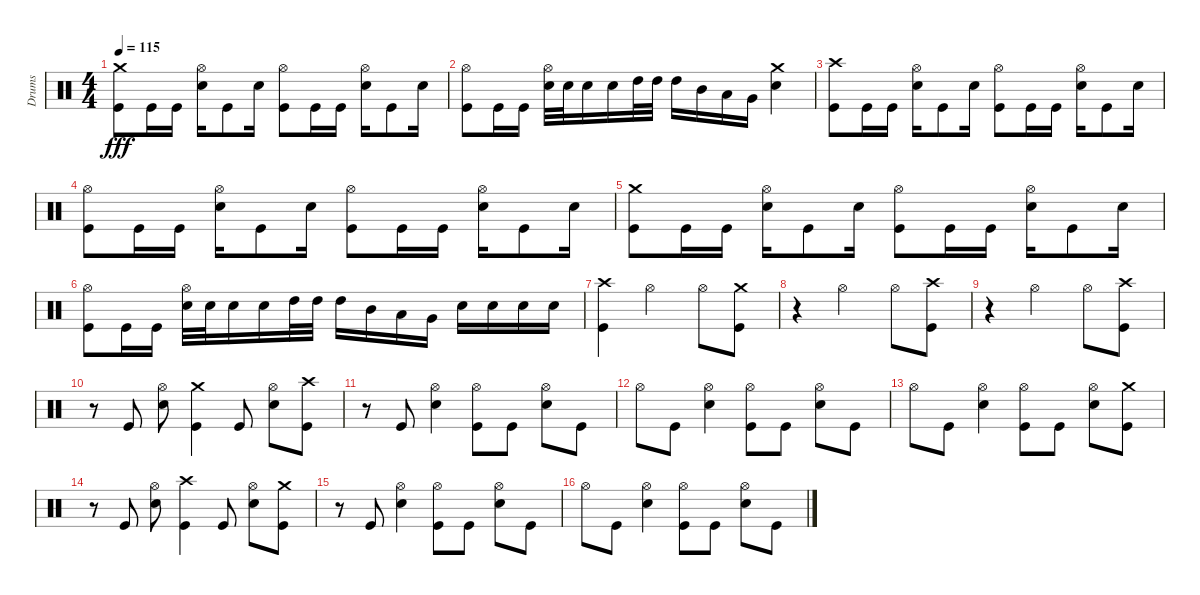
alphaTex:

\track ("Drums" "Drums") {instrument percussion}
\staff {score}
\articulation defaults
\ts (4 4)
\tempo 115
\clef neutral
\ks c
("Crash medium (hit)" "Kick (hit)").8{dy fff} "Kick (hit)".16 "Kick (hit)".16 ("Hi-Hat (open)" "Electric Snare (hit)").16 "Kick (hit)".8 "Electric Snare (hit)".16 ("Hi-Hat (open)" "Kick (hit)").8 "Kick (hit)".16 "Kick (hit)".16 ("Hi-Hat (open)" "Electric Snare (hit)").16 "Kick (hit)".8 "Electric Snare (hit)".16 |
("Hi-Hat (open)" "Kick (hit)").8 "Kick (hit)".16 "Kick (hit)".16 ("Hi-Hat (open)" "Electric Snare (hit)").32 "Electric Snare (hit)".32 "Electric Snare (hit)".16 "Electric Snare (hit)".16 "High Tom (hit)".32 "High Tom (hit)".32 "High Tom (hit)".16 "Mid Tom (hit)".16 "Low Tom (hit)".16 "Very Low Tom (hit)".16 ("Crash medium (hit)" "Electric Snare (hit)").4 |
("Crash high (hit)" "Kick (hit)").8 "Kick (hit)".16 "Kick (hit)".16 ("Hi-Hat (open)" "Electric Snare (hit)").16 "Kick (hit)".8 "Electric Snare (hit)".16 ("Hi-Hat (open)" "Kick (hit)").8 "Kick (hit)".16 "Kick (hit)".16 ("Hi-Hat (open)" "Electric Snare (hit)").16 "Kick (hit)".8 "Electric Snare (hit)".16 |
("Hi-Hat (open)" "Kick (hit)").8 "Kick (hit)".16 "Kick (hit)".16 ("Hi-Hat (open)" "Electric Snare (hit)").16 "Kick (hit)".8 "Electric Snare (hit)".16 ("Hi-Hat (open)" "Kick (hit)").8 "Kick (hit)".16 "Kick (hit)".16 ("Hi-Hat (open)" "Electric Snare (hit)").16 "Kick (hit)".8 "Electric Snare (hit)".16 |
("Crash medium (hit)" "Kick (hit)").8 "Kick (hit)".16 "Kick (hit)".16 ("Hi-Hat (open)" "Electric Snare (hit)").16 "Kick (hit)".8 "Electric Snare (hit)".16 ("Hi-Hat (open)" "Kick (hit)").8 "Kick (hit)".16 "Kick (hit)".16 ("Hi-Hat (open)" "Electric Snare (hit)").16 "Kick (hit)".8 "Electric Snare (hit)".16 |
("Hi-Hat (open)" "Kick (hit)").8 "Kick (hit)".16 "Kick (hit)".16 ("Hi-Hat (open)" "Electric Snare (hit)").32 "Electric Snare (hit)".32 "Electric Snare (hit)".16 "Electric Snare (hit)".16 "High Tom (hit)".32 "High Tom (hit)".32 "High Tom (hit)".16 "Mid Tom (hit)".16 "Low Tom (hit)".16 "Very Low Tom (hit)".16 "Electric Snare (hit)".16 "Electric Snare (hit)".16 "Electric Snare (hit)".16 "Electric Snare (hit)".16 |
("Crash high (hit)" "Kick (hit)").4 "Hi-Hat (open)".2 "Hi-Hat (open)".8 ("Crash medium (hit)" "Kick (hit)").8 |
r.4 "Hi-Hat (open)".2 "Hi-Hat (open)".8 ("Crash high (hit)" "Kick (hit)").8 |
r.4 "Hi-Hat (open)".2 "Hi-Hat (open)".8 ("Crash high (hit)" "Kick (hit)").8 |
r.8 "Kick (hit)".8 ("Hi-Hat (open)" "Electric Snare (hit)").8 ("Crash medium (hit)" "Kick (hit)").4 "Kick (hit)".8 ("Hi-Hat (open)" "Electric Snare (hit)").8 ("Crash high (hit)" "Kick (hit)").8 |
r.8 "Kick (hit)".8 ("Hi-Hat (open)" "Electric Snare (hit)").4 ("Hi-Hat (open)" "Kick (hit)").8 "Kick (hit)".8 ("Hi-Hat (open)" "Electric Snare (hit)").8 "Kick (hit)".8 |
"Hi-Hat (open)".8 "Kick (hit)".8 ("Hi-Hat (open)" "Electric Snare (hit)").4 ("Hi-Hat (open)" "Kick (hit)").8 "Kick (hit)".8 ("Hi-Hat (open)" "Electric Snare (hit)").8 "Kick (hit)".8 |
"Hi-Hat (open)".8 "Kick (hit)".8 ("Hi-Hat (open)" "Electric Snare (hit)").4 ("Hi-Hat (open)" "Kick (hit)").8 "Kick (hit)".8 ("Hi-Hat (open)" "Electric Snare (hit)").8 ("Crash medium (hit)" "Kick (hit)").8 |
r.8 "Kick (hit)".8 ("Hi-Hat (open)" "Electric Snare (hit)").8 ("Crash high (hit)" "Kick (hit)").4 "Kick (hit)".8 ("Hi-Hat (open)" "Electric Snare (hit)").8 ("Crash medium (hit)" "Kick (hit)").8 |
r.8 "Kick (hit)".8 ("Hi-Hat (open)" "Electric Snare (hit)").4 ("Hi-Hat (open)" "Kick (hit)").8 "Kick (hit)".8 ("Hi-Hat (open)" "Electric Snare (hit)").8 "Kick (hit)".8 |
"Hi-Hat (open)".8 "Kick (hit)".8 ("Hi-Hat (open)" "Electric Snare (hit)").4 ("Hi-Hat (open)" "Kick (hit)").8 "Kick (hit)".8 ("Hi-Hat (open)" "Electric Snare (hit)").8 "Kick (hit)".8
